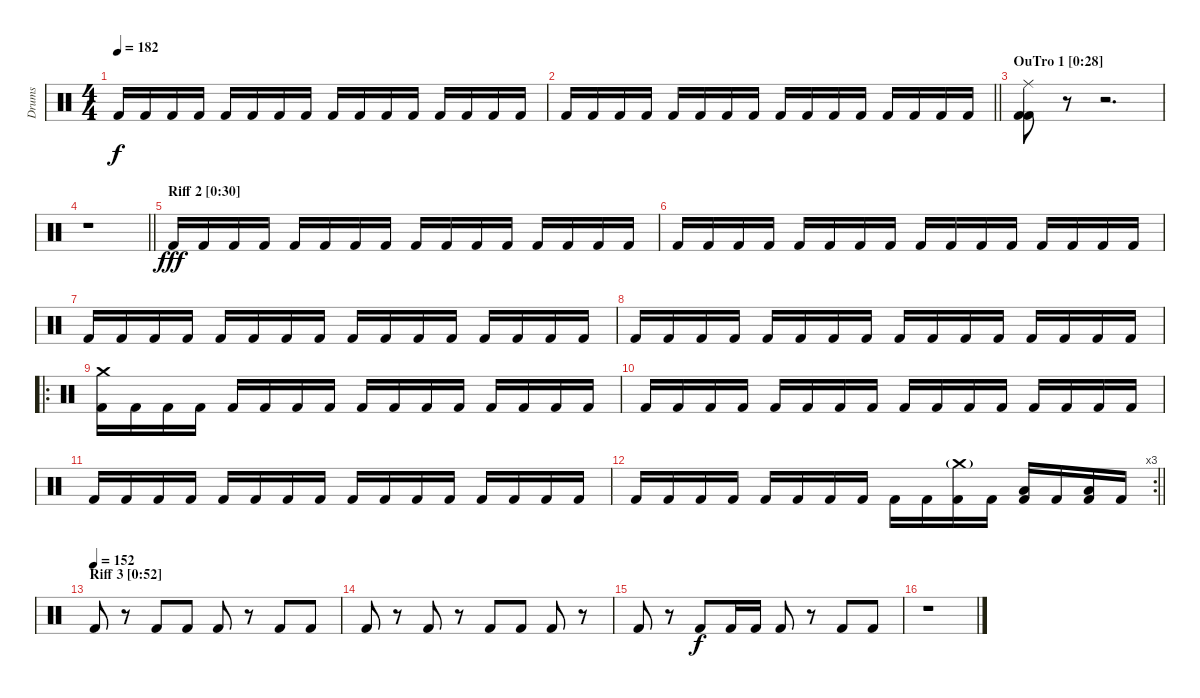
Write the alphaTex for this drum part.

\track ("Drums" "Drums") {instrument percussion}
\staff {score}
\articulation defaults
\ts (4 4)
\tempo 182
\clef neutral
\ks c "Kick (hit) 2".16{dy f} "Kick (hit) 2".16 "Kick (hit) 2".16 "Kick (hit) 2".16 "Kick (hit) 2".16 "Kick (hit) 2".16 "Kick (hit) 2".16 "Kick (hit) 2".16 "Kick (hit) 2".16 "Kick (hit) 2".16 "Kick (hit) 2".16 "Kick (hit) 2".16 "Kick (hit) 2".16 "Kick (hit) 2".16 "Kick (hit) 2".16 "Kick (hit) 2".16
|
\barLineRight lightlight "Kick (hit) 2".16 "Kick (hit) 2".16 "Kick (hit) 2".16 "Kick (hit) 2".16 "Kick (hit) 2".16 "Kick (hit) 2".16 "Kick (hit) 2".16 "Kick (hit) 2".16 "Kick (hit) 2".16 "Kick (hit) 2".16 "Kick (hit) 2".16 "Kick (hit) 2".16 "Kick (hit) 2".16 "Kick (hit) 2".16 "Kick (hit) 2".16 "Kick (hit) 2".16
|
\section ("" "OuTro 1 [0:28]")
("Ride (middle)" "Kick (hit) 2" "Kick (hit) 2").8 r.8 r.2{d} |
\barLineRight lightlight
r.1 |
\section ("" "Riff 2 [0:30]")
"Kick (hit) 2".16{dy fff} "Kick (hit) 2".16 "Kick (hit) 2".16 "Kick (hit) 2".16 "Kick (hit) 2".16 "Kick (hit) 2".16 "Kick (hit) 2".16 "Kick (hit) 2".16 "Kick (hit) 2".16 "Kick (hit) 2".16 "Kick (hit) 2".16 "Kick (hit) 2".16 "Kick (hit) 2".16 "Kick (hit) 2".16 "Kick (hit) 2".16 "Kick (hit) 2".16 |
"Kick (hit) 2".16 "Kick (hit) 2".16 "Kick (hit) 2".16 "Kick (hit) 2".16 "Kick (hit) 2".16 "Kick (hit) 2".16 "Kick (hit) 2".16 "Kick (hit) 2".16 "Kick (hit) 2".16 "Kick (hit) 2".16 "Kick (hit) 2".16 "Kick (hit) 2".16 "Kick (hit) 2".16 "Kick (hit) 2".16 "Kick (hit) 2".16 "Kick (hit) 2".16 |
"Kick (hit) 2".16 "Kick (hit) 2".16 "Kick (hit) 2".16 "Kick (hit) 2".16 "Kick (hit) 2".16 "Kick (hit) 2".16 "Kick (hit) 2".16 "Kick (hit) 2".16 "Kick (hit) 2".16 "Kick (hit) 2".16 "Kick (hit) 2".16 "Kick (hit) 2".16 "Kick (hit) 2".16 "Kick (hit) 2".16 "Kick (hit) 2".16 "Kick (hit) 2".16 |
"Kick (hit) 2".16 "Kick (hit) 2".16 "Kick (hit) 2".16 "Kick (hit) 2".16 "Kick (hit) 2".16 "Kick (hit) 2".16 "Kick (hit) 2".16 "Kick (hit) 2".16 "Kick (hit) 2".16 "Kick (hit) 2".16 "Kick (hit) 2".16 "Kick (hit) 2".16 "Kick (hit) 2".16 "Kick (hit) 2".16 "Kick (hit) 2".16 "Kick (hit) 2".16 |
\ro
("Crash medium (hit)" "Kick (hit) 2").16 "Kick (hit) 2".16 "Kick (hit) 2".16 "Kick (hit) 2".16 "Kick (hit) 2".16 "Kick (hit) 2".16 "Kick (hit) 2".16 "Kick (hit) 2".16 "Kick (hit) 2".16 "Kick (hit) 2".16 "Kick (hit) 2".16 "Kick (hit) 2".16 "Kick (hit) 2".16 "Kick (hit) 2".16 "Kick (hit) 2".16 "Kick (hit) 2".16 |
"Kick (hit) 2".16 "Kick (hit) 2".16 "Kick (hit) 2".16 "Kick (hit) 2".16 "Kick (hit) 2".16 "Kick (hit) 2".16 "Kick (hit) 2".16 "Kick (hit) 2".16 "Kick (hit) 2".16 "Kick (hit) 2".16 "Kick (hit) 2".16 "Kick (hit) 2".16 "Kick (hit) 2".16 "Kick (hit) 2".16 "Kick (hit) 2".16 "Kick (hit) 2".16 |
"Kick (hit) 2".16 "Kick (hit) 2".16 "Kick (hit) 2".16 "Kick (hit) 2".16 "Kick (hit) 2".16 "Kick (hit) 2".16 "Kick (hit) 2".16 "Kick (hit) 2".16 "Kick (hit) 2".16 "Kick (hit) 2".16 "Kick (hit) 2".16 "Kick (hit) 2".16 "Kick (hit) 2".16 "Kick (hit) 2".16 "Kick (hit) 2".16 "Kick (hit) 2".16 |
\rc 3
\barLineRight lightlight "Kick (hit) 2".16 "Kick (hit) 2".16 "Kick (hit) 2".16 "Kick (hit) 2".16 "Kick (hit) 2".16 "Kick (hit) 2".16 "Kick (hit) 2".16 "Kick (hit) 2".16 "Kick (hit) 2".16 "Kick (hit) 2".16
("Crash medium (hit)"{g} "Kick (hit) 2").16 "Kick (hit) 2".16 ("Low Tom (hit)" "Kick (hit) 2").16 "Kick (hit) 2".16 ("Low Floor Tom (hit)" "Kick (hit) 2").16 "Kick (hit) 2".16 |
\section ("" "Riff 3 [0:52]")
\tempo (152)
"Kick (hit) 2".8 r.8 "Kick (hit) 2".8 "Kick (hit) 2".8 "Kick (hit) 2".8 r.8 "Kick (hit) 2".8 "Kick (hit) 2".8 |
"Kick (hit) 2".8 r.8 "Kick (hit) 2".8 r.8 "Kick (hit) 2".8 "Kick (hit) 2".8 "Kick (hit) 2".8 r.8 |
"Kick (hit) 2".8 r.8 "Kick (hit) 2".8{dy f} "Kick (hit) 2".16 "Kick (hit) 2".16 "Kick (hit) 2".8 r.8 "Kick (hit) 2".8 "Kick (hit) 2".8 |
r.1
